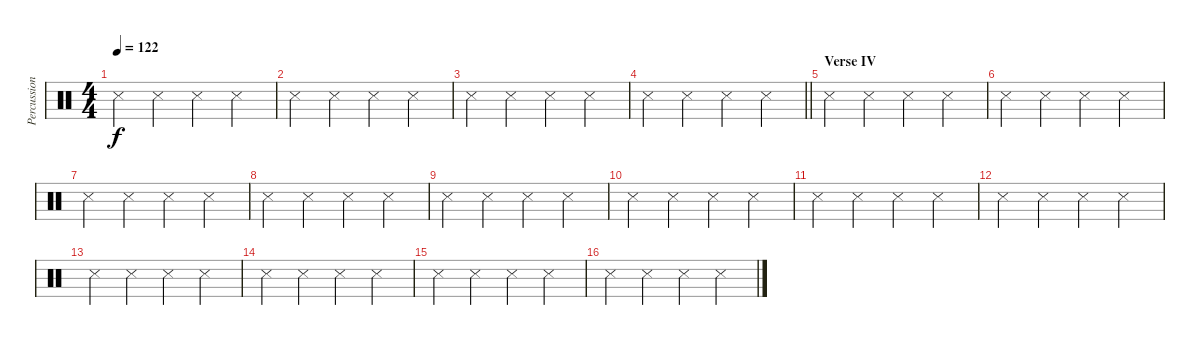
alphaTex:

\track ("Percussion" "Percussion") {instrument percussion}
\staff {score}
\articulation defaults
\ts (4 4)
\tempo 122
\clef neutral
\ks c "Snare (side stick) 3".4{dy f} "Metronome (hit)".4 "Metronome (hit)".4 "Metronome (hit)".4
|
"Snare (side stick) 3".4 "Metronome (hit)".4 "Metronome (hit)".4 "Metronome (hit)".4 |
"Snare (side stick) 3".4 "Metronome (hit)".4 "Metronome (hit)".4 "Metronome (hit)".4 |
\barLineRight lightlight "Snare (side stick) 3".4 "Metronome (hit)".4 "Metronome (hit)".4 "Metronome (hit)".4
|
\section ("" "Verse IV")
"Snare (side stick) 3".4 "Metronome (hit)".4 "Metronome (hit)".4 "Metronome (hit)".4 |
"Snare (side stick) 3".4 "Metronome (hit)".4 "Metronome (hit)".4 "Metronome (hit)".4 |
"Snare (side stick) 3".4 "Metronome (hit)".4 "Metronome (hit)".4 "Metronome (hit)".4 |
"Snare (side stick) 3".4 "Metronome (hit)".4 "Metronome (hit)".4 "Metronome (hit)".4 |
"Snare (side stick) 3".4 "Metronome (hit)".4 "Metronome (hit)".4 "Metronome (hit)".4 |
"Snare (side stick) 3".4 "Metronome (hit)".4 "Metronome (hit)".4 "Metronome (hit)".4 |
"Snare (side stick) 3".4 "Metronome (hit)".4 "Metronome (hit)".4 "Metronome (hit)".4 |
"Snare (side stick) 3".4 "Metronome (hit)".4 "Metronome (hit)".4 "Metronome (hit)".4 |
"Snare (side stick) 3".4 "Metronome (hit)".4 "Metronome (hit)".4 "Metronome (hit)".4 |
"Snare (side stick) 3".4 "Metronome (hit)".4 "Metronome (hit)".4 "Metronome (hit)".4 |
"Snare (side stick) 3".4 "Metronome (hit)".4 "Metronome (hit)".4 "Metronome (hit)".4 |
"Snare (side stick) 3".4 "Metronome (hit)".4 "Metronome (hit)".4 "Metronome (hit)".4
